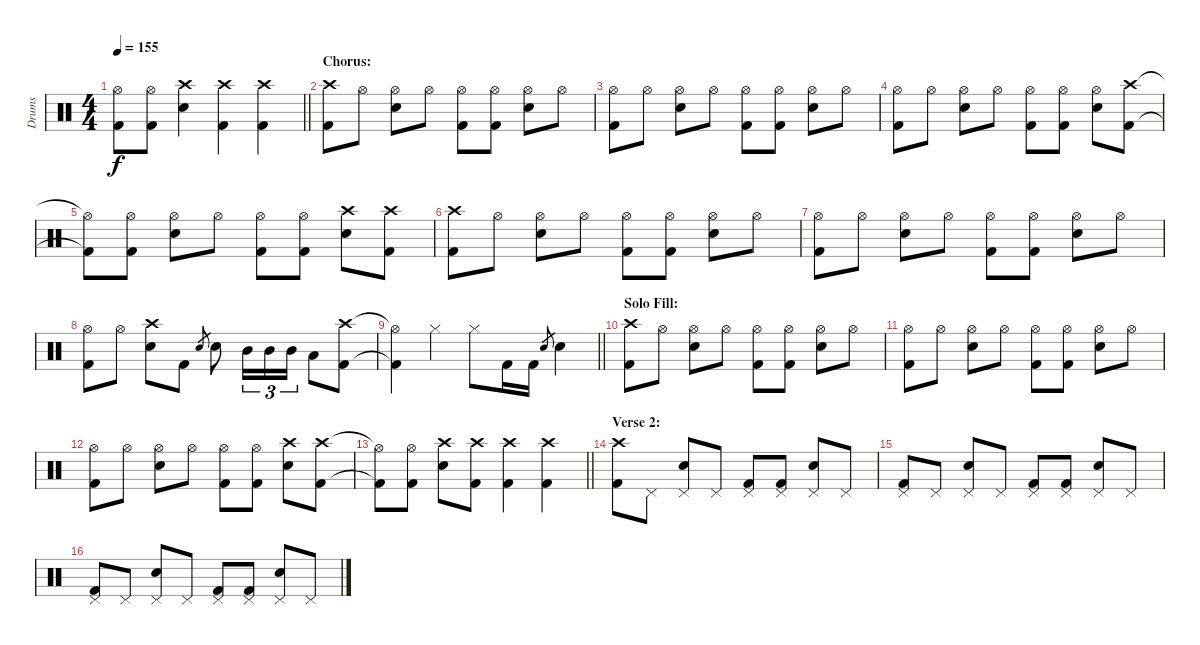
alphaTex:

\track ("Drums" "Drums") {instrument percussion}
\staff {score}
\articulation defaults
\ts (4 4)
\tempo 155
\clef neutral
\barLineRight lightlight
\ks c
("Hi-Hat (open)" "Kick (hit) 2").8{dy f} ("Hi-Hat (open)" "Kick (hit) 2").8 ("Crash high (hit)" "Electric Snare (hit)").4 ("Crash high (hit)" "Kick (hit) 2").4 ("Crash high (hit)" "Kick (hit) 2").4 |
\section ("" "Chorus:")
("Crash high (hit)" "Kick (hit) 2").8 "Hi-Hat (open)".8 ("Hi-Hat (open)" "Electric Snare (hit)").8 "Hi-Hat (open)".8 ("Hi-Hat (open)" "Kick (hit) 2").8 ("Hi-Hat (open)" "Kick (hit) 2").8 ("Hi-Hat (open)" "Electric Snare (hit)").8 "Hi-Hat (open)".8 |
("Hi-Hat (open)" "Kick (hit) 2").8 "Hi-Hat (open)".8 ("Hi-Hat (open)" "Electric Snare (hit)").8 "Hi-Hat (open)".8 ("Hi-Hat (open)" "Kick (hit) 2").8 ("Hi-Hat (open)" "Kick (hit) 2").8 ("Hi-Hat (open)" "Electric Snare (hit)").8 "Hi-Hat (open)".8 |
("Hi-Hat (open)" "Kick (hit) 2").8 "Hi-Hat (open)".8 ("Hi-Hat (open)" "Electric Snare (hit)").8 "Hi-Hat (open)".8 ("Hi-Hat (open)" "Kick (hit) 2").8 ("Hi-Hat (open)" "Kick (hit) 2").8 ("Hi-Hat (open)" "Electric Snare (hit)").8 ("Crash high (hit)" "Kick (hit) 2").8 |
("Hi-Hat (open)"{t} "Kick (hit) 2"{t}).8 ("Hi-Hat (open)" "Kick (hit) 2").8 ("Hi-Hat (open)" "Electric Snare (hit)").8 "Hi-Hat (open)".8 ("Hi-Hat (open)" "Kick (hit) 2").8 ("Hi-Hat (open)" "Kick (hit) 2").8 ("Crash high (hit)" "Electric Snare (hit)").8 ("Crash high (hit)" "Kick (hit) 2").8 |
("Crash high (hit)" "Kick (hit) 2").8 "Hi-Hat (open)".8 ("Hi-Hat (open)" "Electric Snare (hit)").8 "Hi-Hat (open)".8 ("Hi-Hat (open)" "Kick (hit) 2").8 ("Hi-Hat (open)" "Kick (hit) 2").8 ("Hi-Hat (open)" "Electric Snare (hit)").8 "Hi-Hat (open)".8 |
("Hi-Hat (open)" "Kick (hit) 2").8 "Hi-Hat (open)".8 ("Hi-Hat (open)" "Electric Snare (hit)").8 "Hi-Hat (open)".8 ("Hi-Hat (open)" "Kick (hit) 2").8 ("Hi-Hat (open)" "Kick (hit) 2").8 ("Hi-Hat (open)" "Electric Snare (hit)").8 "Hi-Hat (open)".8 |
("Hi-Hat (open)" "Kick (hit) 2").8 "Hi-Hat (open)".8 ("Crash high (hit)" "Electric Snare (hit)").8 "Kick (hit) 2".8 "Electric Snare (hit)".8{gr} "Electric Snare (hit)".8 "Mid Tom (hit)".16{tu (3 2)} "Mid Tom (hit)".16{tu (3 2)} "Mid Tom (hit)".16{tu (3 2)} "Low Tom (hit)".8 ("Crash high (hit)" "Kick (hit) 2").8 |
\barLineRight lightlight
("Hi-Hat (open)"{t} "Kick (hit) 2"{t}).4 "Hi-Hat (closed)".4 "Hi-Hat (closed)".8 "Kick (hit) 2".16 "Kick (hit) 2".16 "Electric Snare (hit)".8{gr} "Electric Snare (hit)".4 |
\section ("" "Solo Fill:")
("Crash high (hit)" "Kick (hit) 2").8 "Hi-Hat (open)".8 ("Hi-Hat (open)" "Electric Snare (hit)").8 "Hi-Hat (open)".8 ("Hi-Hat (open)" "Kick (hit) 2").8 ("Hi-Hat (open)" "Kick (hit) 2").8 ("Hi-Hat (open)" "Electric Snare (hit)").8 "Hi-Hat (open)".8 |
("Hi-Hat (open)" "Kick (hit) 2").8 "Hi-Hat (open)".8 ("Hi-Hat (open)" "Electric Snare (hit)").8 "Hi-Hat (open)".8 ("Hi-Hat (open)" "Kick (hit) 2").8 ("Hi-Hat (open)" "Kick (hit) 2").8 ("Hi-Hat (open)" "Electric Snare (hit)").8 "Hi-Hat (open)".8 |
("Hi-Hat (open)" "Kick (hit) 2").8 "Hi-Hat (open)".8 ("Hi-Hat (open)" "Electric Snare (hit)").8 "Hi-Hat (open)".8 ("Hi-Hat (open)" "Kick (hit) 2").8 ("Hi-Hat (open)" "Kick (hit) 2").8 ("Crash high (hit)" "Electric Snare (hit)").8 ("Crash high (hit)" "Kick (hit) 2").8 |
\barLineRight lightlight
("Hi-Hat (open)"{t} "Kick (hit) 2"{t}).8 ("Hi-Hat (open)" "Kick (hit) 2").8 ("Crash high (hit)" "Electric Snare (hit)").8 ("Crash high (hit)" "Kick (hit) 2").8 ("Crash high (hit)" "Kick (hit) 2").4 ("Crash high (hit)" "Kick (hit) 2").4 |
\section ("" "Verse 2:")
("Crash high (hit)" "Kick (hit) 2").8 "Pedal Hi-Hat (hit)".8 ("Pedal Hi-Hat (hit)" "Electric Snare (hit)").8 "Pedal Hi-Hat (hit)".8 ("Pedal Hi-Hat (hit)" "Kick (hit) 2").8 ("Pedal Hi-Hat (hit)" "Kick (hit) 2").8 ("Pedal Hi-Hat (hit)" "Electric Snare (hit)").8 "Pedal Hi-Hat (hit)".8 |
("Pedal Hi-Hat (hit)" "Kick (hit) 2").8 "Pedal Hi-Hat (hit)".8 ("Pedal Hi-Hat (hit)" "Electric Snare (hit)").8 "Pedal Hi-Hat (hit)".8 ("Pedal Hi-Hat (hit)" "Kick (hit) 2").8 ("Pedal Hi-Hat (hit)" "Kick (hit) 2").8 ("Pedal Hi-Hat (hit)" "Electric Snare (hit)").8 "Pedal Hi-Hat (hit)".8 |
("Pedal Hi-Hat (hit)" "Kick (hit) 2").8 "Pedal Hi-Hat (hit)".8 ("Pedal Hi-Hat (hit)" "Electric Snare (hit)").8 "Pedal Hi-Hat (hit)".8 ("Pedal Hi-Hat (hit)" "Kick (hit) 2").8 ("Pedal Hi-Hat (hit)" "Kick (hit) 2").8 ("Pedal Hi-Hat (hit)" "Electric Snare (hit)").8 "Pedal Hi-Hat (hit)".8
